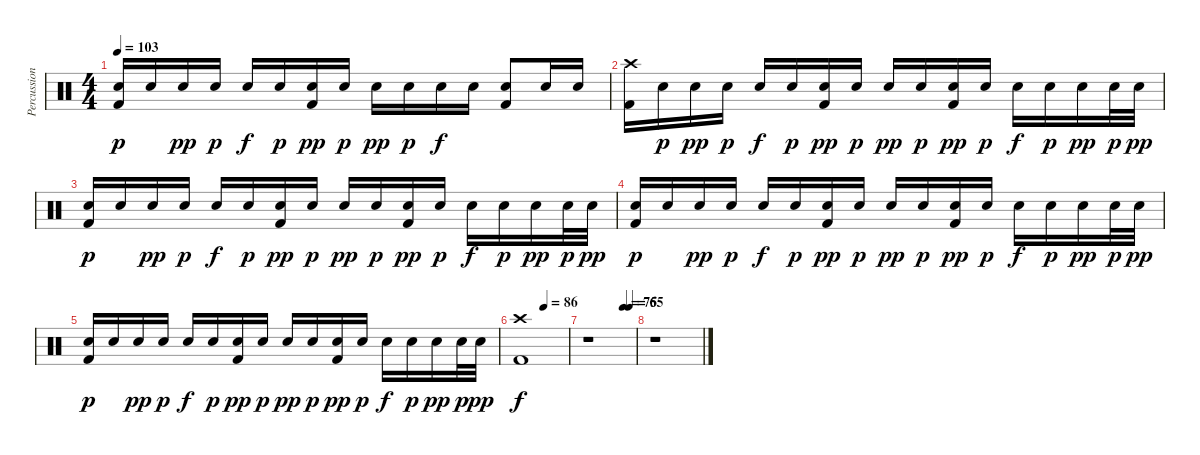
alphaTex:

\track ("Percussion" "Percussion") {instrument percussion}
\staff {score}
\articulation defaults
\ts (4 4)
\tempo 103
\clef neutral
\ks c
("Electric Snare (hit)" "Kick (hit) 2").16{dy p} "Electric Snare (hit)".16 "Electric Snare (hit)".16{dy pp} "Electric Snare (hit)".16{dy p} "Electric Snare (hit)".16{dy f} "Electric Snare (hit)".16{dy p} ("Electric Snare (hit)" "Kick (hit) 2").16{dy pp} "Electric Snare (hit)".16{dy p} "Electric Snare (hit)".16{dy pp} "Electric Snare (hit)".16{dy p} "Electric Snare (hit)".16{dy f} "Electric Snare (hit)".16 ("Electric Snare (hit)" "Kick (hit) 2").8 "Electric Snare (hit)".16 "Electric Snare (hit)".16 |
("Crash high (hit)" "Kick (hit) 2").16 "Electric Snare (hit)".16{dy p} "Electric Snare (hit)".16{dy pp} "Electric Snare (hit)".16{dy p} "Electric Snare (hit)".16{dy f} "Electric Snare (hit)".16{dy p} ("Electric Snare (hit)" "Kick (hit) 2").16{dy pp} "Electric Snare (hit)".16{dy p} "Electric Snare (hit)".16{dy pp} "Electric Snare (hit)".16{dy p} ("Electric Snare (hit)" "Kick (hit) 2").16{dy pp} "Electric Snare (hit)".16{dy p} "Electric Snare (hit)".16{dy f} "Electric Snare (hit)".16{dy p} "Electric Snare (hit)".16{dy pp} "Electric Snare (hit)".32{dy p} "Electric Snare (hit)".32{dy pp} |
("Electric Snare (hit)" "Kick (hit) 2").16{dy p} "Electric Snare (hit)".16 "Electric Snare (hit)".16{dy pp} "Electric Snare (hit)".16{dy p} "Electric Snare (hit)".16{dy f} "Electric Snare (hit)".16{dy p} ("Electric Snare (hit)" "Kick (hit) 2").16{dy pp} "Electric Snare (hit)".16{dy p} "Electric Snare (hit)".16{dy pp} "Electric Snare (hit)".16{dy p} ("Electric Snare (hit)" "Kick (hit) 2").16{dy pp} "Electric Snare (hit)".16{dy p} "Electric Snare (hit)".16{dy f} "Electric Snare (hit)".16{dy p} "Electric Snare (hit)".16{dy pp} "Electric Snare (hit)".32{dy p} "Electric Snare (hit)".32{dy pp} |
("Electric Snare (hit)" "Kick (hit) 2").16{dy p} "Electric Snare (hit)".16 "Electric Snare (hit)".16{dy pp} "Electric Snare (hit)".16{dy p} "Electric Snare (hit)".16{dy f} "Electric Snare (hit)".16{dy p} ("Electric Snare (hit)" "Kick (hit) 2").16{dy pp} "Electric Snare (hit)".16{dy p} "Electric Snare (hit)".16{dy pp} "Electric Snare (hit)".16{dy p} ("Electric Snare (hit)" "Kick (hit) 2").16{dy pp} "Electric Snare (hit)".16{dy p} "Electric Snare (hit)".16{dy f} "Electric Snare (hit)".16{dy p} "Electric Snare (hit)".16{dy pp} "Electric Snare (hit)".32{dy p} "Electric Snare (hit)".32{dy pp} |
("Electric Snare (hit)" "Kick (hit) 2").16{dy p} "Electric Snare (hit)".16 "Electric Snare (hit)".16{dy pp} "Electric Snare (hit)".16{dy p} "Electric Snare (hit)".16{dy f} "Electric Snare (hit)".16{dy p} ("Electric Snare (hit)" "Kick (hit) 2").16{dy pp} "Electric Snare (hit)".16{dy p} "Electric Snare (hit)".16{dy pp} "Electric Snare (hit)".16{dy p} ("Electric Snare (hit)" "Kick (hit) 2").16{dy pp} "Electric Snare (hit)".16{dy p} "Electric Snare (hit)".16{dy f} "Electric Snare (hit)".16{dy p} "Electric Snare (hit)".16{dy pp} "Electric Snare (hit)".32{dy p} "Electric Snare (hit)".32{dy pp} |
\tempo (86 0.5)
("Crash high (hit)" "Kick (hit) 2").1{dy f} |
\tempo (75 0.75)
\tempo (65 0.875)
r.1 |
r.1
